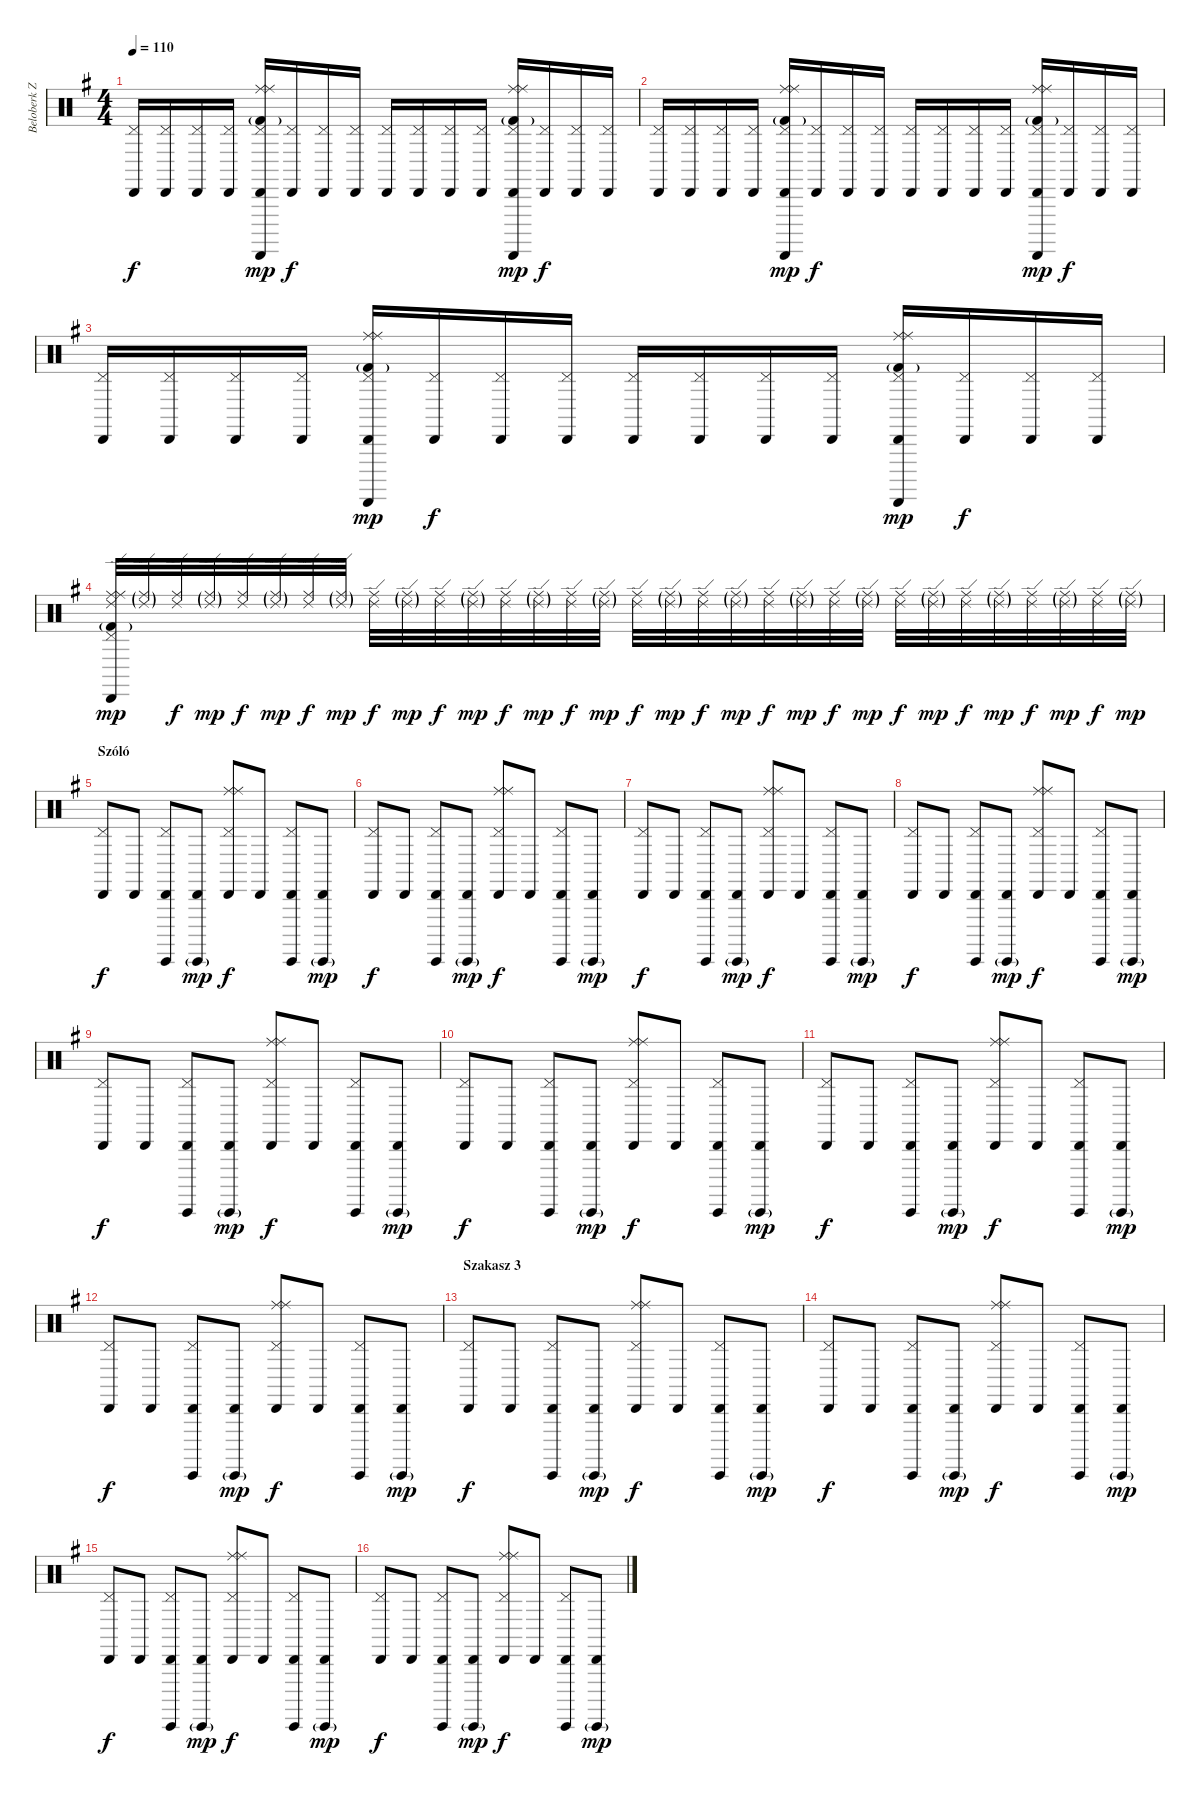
\track ("Beloberk Zsolt" "Beloberk Z") {instrument percussion}
\staff {score}
\articulation defaults
\ts (4 4)
\tempo 110
\clef neutral
\ks eminor
("Pedal Hi-Hat (hit)" "Cabasa (hit)").16{dy f} ("Pedal Hi-Hat (hit)" "Cabasa (hit)").16 ("Pedal Hi-Hat (hit)" "Cabasa (hit)").16 ("Pedal Hi-Hat (hit)" "Cabasa (hit)").16 ("Pedal Hi-Hat (hit)" "Cabasa (hit)" "Ride (middle)" "Ride (middle)" "Kick (hit) 2"{g} "Guiro (scrap-return)").16{dy mp} ("Pedal Hi-Hat (hit)" "Cabasa (hit)").16{dy f} ("Pedal Hi-Hat (hit)" "Cabasa (hit)").16 ("Pedal Hi-Hat (hit)" "Cabasa (hit)").16 ("Pedal Hi-Hat (hit)" "Cabasa (hit)").16 ("Pedal Hi-Hat (hit)" "Cabasa (hit)").16 ("Pedal Hi-Hat (hit)" "Cabasa (hit)").16 ("Pedal Hi-Hat (hit)" "Cabasa (hit)").16 ("Pedal Hi-Hat (hit)" "Cabasa (hit)" "Ride (middle)" "Ride (middle)" "Kick (hit) 2"{g} "Guiro (scrap-return)").16{dy mp} ("Pedal Hi-Hat (hit)" "Cabasa (hit)").16{dy f} ("Pedal Hi-Hat (hit)" "Cabasa (hit)").16 ("Pedal Hi-Hat (hit)" "Cabasa (hit)").16 |
("Pedal Hi-Hat (hit)" "Cabasa (hit)").16 ("Pedal Hi-Hat (hit)" "Cabasa (hit)").16 ("Pedal Hi-Hat (hit)" "Cabasa (hit)").16 ("Pedal Hi-Hat (hit)" "Cabasa (hit)").16 ("Pedal Hi-Hat (hit)" "Cabasa (hit)" "Ride (middle)" "Ride (middle)" "Kick (hit) 2"{g} "Guiro (scrap-return)").16{dy mp} ("Pedal Hi-Hat (hit)" "Cabasa (hit)").16{dy f} ("Pedal Hi-Hat (hit)" "Cabasa (hit)").16 ("Pedal Hi-Hat (hit)" "Cabasa (hit)").16 ("Pedal Hi-Hat (hit)" "Cabasa (hit)").16 ("Pedal Hi-Hat (hit)" "Cabasa (hit)").16 ("Pedal Hi-Hat (hit)" "Cabasa (hit)").16 ("Pedal Hi-Hat (hit)" "Cabasa (hit)").16 ("Pedal Hi-Hat (hit)" "Cabasa (hit)" "Ride (middle)" "Ride (middle)" "Kick (hit) 2"{g} "Guiro (scrap-return)").16{dy mp} ("Pedal Hi-Hat (hit)" "Cabasa (hit)").16{dy f} ("Pedal Hi-Hat (hit)" "Cabasa (hit)").16 ("Pedal Hi-Hat (hit)" "Cabasa (hit)").16 |
("Pedal Hi-Hat (hit)" "Cabasa (hit)").16 ("Pedal Hi-Hat (hit)" "Cabasa (hit)").16 ("Pedal Hi-Hat (hit)" "Cabasa (hit)").16 ("Pedal Hi-Hat (hit)" "Cabasa (hit)").16 ("Pedal Hi-Hat (hit)" "Cabasa (hit)" "Ride (middle)" "Ride (middle)" "Kick (hit) 2"{g} "Guiro (scrap-return)").16{dy mp} ("Pedal Hi-Hat (hit)" "Cabasa (hit)").16{dy f} ("Pedal Hi-Hat (hit)" "Cabasa (hit)").16 ("Pedal Hi-Hat (hit)" "Cabasa (hit)").16 ("Pedal Hi-Hat (hit)" "Cabasa (hit)").16 ("Pedal Hi-Hat (hit)" "Cabasa (hit)").16 ("Pedal Hi-Hat (hit)" "Cabasa (hit)").16 ("Pedal Hi-Hat (hit)" "Cabasa (hit)").16 ("Pedal Hi-Hat (hit)" "Cabasa (hit)" "Ride (middle)" "Ride (middle)" "Kick (hit) 2"{g} "Guiro (scrap-return)").16{dy mp} ("Pedal Hi-Hat (hit)" "Cabasa (hit)").16{dy f} ("Pedal Hi-Hat (hit)" "Cabasa (hit)").16 ("Pedal Hi-Hat (hit)" "Cabasa (hit)").16 |
("Pedal Hi-Hat (hit)" "Cabasa (hit)" "Ride (middle)" "Ride (edge) 2" "Kick (hit) 2"{g} "Ride (middle)").32{dy mp} ("Ride (middle)"{g} "Ride (edge) 2"{g}).32 ("Ride (middle)" "Ride (edge) 2").32{dy f} ("Ride (middle)"{g} "Ride (edge) 2"{g}).32{dy mp} ("Ride (middle)" "Ride (edge) 2").32{dy f} ("Ride (middle)"{g} "Ride (edge) 2"{g}).32{dy mp} ("Ride (middle)" "Ride (edge) 2").32{dy f} ("Ride (middle)"{g} "Ride (edge) 2"{g}).32{dy mp} ("Ride (middle)" "Ride (edge) 2").32{dy f} ("Ride (middle)"{g} "Ride (edge) 2"{g}).32{dy mp} ("Ride (middle)" "Ride (edge) 2").32{dy f} ("Ride (middle)"{g} "Ride (edge) 2"{g}).32{dy mp} ("Ride (middle)" "Ride (edge) 2").32{dy f} ("Ride (middle)"{g} "Ride (edge) 2"{g}).32{dy mp} ("Ride (middle)" "Ride (edge) 2").32{dy f} ("Ride (middle)"{g} "Ride (edge) 2"{g}).32{dy mp} ("Ride (middle)" "Ride (edge) 2").32{dy f} ("Ride (middle)"{g} "Ride (edge) 2"{g}).32{dy mp} ("Ride (middle)" "Ride (edge) 2").32{dy f} ("Ride (middle)"{g} "Ride (edge) 2"{g}).32{dy mp} ("Ride (middle)" "Ride (edge) 2").32{dy f} ("Ride (middle)"{g} "Ride (edge) 2"{g}).32{dy mp} ("Ride (middle)" "Ride (edge) 2").32{dy f} ("Ride (middle)"{g} "Ride (edge) 2"{g}).32{dy mp} ("Ride (middle)" "Ride (edge) 2").32{dy f} ("Ride (middle)"{g} "Ride (edge) 2"{g}).32{dy mp} ("Ride (middle)" "Ride (edge) 2").32{dy f} ("Ride (middle)"{g} "Ride (edge) 2"{g}).32{dy mp} ("Ride (middle)" "Ride (edge) 2").32{dy f} ("Ride (middle)"{g} "Ride (edge) 2"{g}).32{dy mp} ("Ride (middle)" "Ride (edge) 2").32{dy f} ("Ride (middle)"{g} "Ride (edge) 2"{g}).32{dy mp} |
\section ("" "Szóló")
("Cabasa (hit)" "Pedal Hi-Hat (hit)").8{dy f} "Cabasa (hit)".8 ("Cabasa (hit)" "Guiro (hit)" "Pedal Hi-Hat (hit)").8 ("Cabasa (hit)" "Guiro (hit)"{g}).8{dy mp} ("Cabasa (hit)" "Pedal Hi-Hat (hit)" "Ride (middle)" "Ride (middle)").8{dy f} "Cabasa (hit)".8 ("Cabasa (hit)" "Guiro (hit)" "Pedal Hi-Hat (hit)").8 ("Cabasa (hit)" "Guiro (hit)"{g}).8{dy mp} |
("Cabasa (hit)" "Pedal Hi-Hat (hit)").8{dy f} "Cabasa (hit)".8 ("Cabasa (hit)" "Guiro (hit)" "Pedal Hi-Hat (hit)").8 ("Cabasa (hit)" "Guiro (hit)"{g}).8{dy mp} ("Cabasa (hit)" "Pedal Hi-Hat (hit)" "Ride (middle)" "Ride (middle)").8{dy f} "Cabasa (hit)".8 ("Cabasa (hit)" "Guiro (hit)" "Pedal Hi-Hat (hit)").8 ("Cabasa (hit)" "Guiro (hit)"{g}).8{dy mp} |
("Cabasa (hit)" "Pedal Hi-Hat (hit)").8{dy f} "Cabasa (hit)".8 ("Cabasa (hit)" "Guiro (hit)" "Pedal Hi-Hat (hit)").8 ("Cabasa (hit)" "Guiro (hit)"{g}).8{dy mp} ("Cabasa (hit)" "Pedal Hi-Hat (hit)" "Ride (middle)" "Ride (middle)").8{dy f} "Cabasa (hit)".8 ("Cabasa (hit)" "Guiro (hit)" "Pedal Hi-Hat (hit)").8 ("Cabasa (hit)" "Guiro (hit)"{g}).8{dy mp} |
("Cabasa (hit)" "Pedal Hi-Hat (hit)").8{dy f} "Cabasa (hit)".8 ("Cabasa (hit)" "Guiro (hit)" "Pedal Hi-Hat (hit)").8 ("Cabasa (hit)" "Guiro (hit)"{g}).8{dy mp} ("Cabasa (hit)" "Pedal Hi-Hat (hit)" "Ride (middle)" "Ride (middle)").8{dy f} "Cabasa (hit)".8 ("Cabasa (hit)" "Guiro (hit)" "Pedal Hi-Hat (hit)").8 ("Cabasa (hit)" "Guiro (hit)"{g}).8{dy mp} |
("Cabasa (hit)" "Pedal Hi-Hat (hit)").8{dy f} "Cabasa (hit)".8 ("Cabasa (hit)" "Guiro (hit)" "Pedal Hi-Hat (hit)").8 ("Cabasa (hit)" "Guiro (hit)"{g}).8{dy mp} ("Cabasa (hit)" "Pedal Hi-Hat (hit)" "Ride (middle)" "Ride (middle)").8{dy f} "Cabasa (hit)".8 ("Cabasa (hit)" "Guiro (hit)" "Pedal Hi-Hat (hit)").8 ("Cabasa (hit)" "Guiro (hit)"{g}).8{dy mp} |
("Cabasa (hit)" "Pedal Hi-Hat (hit)").8{dy f} "Cabasa (hit)".8 ("Cabasa (hit)" "Guiro (hit)" "Pedal Hi-Hat (hit)").8 ("Cabasa (hit)" "Guiro (hit)"{g}).8{dy mp} ("Cabasa (hit)" "Pedal Hi-Hat (hit)" "Ride (middle)" "Ride (middle)").8{dy f} "Cabasa (hit)".8 ("Cabasa (hit)" "Guiro (hit)" "Pedal Hi-Hat (hit)").8 ("Cabasa (hit)" "Guiro (hit)"{g}).8{dy mp} |
("Cabasa (hit)" "Pedal Hi-Hat (hit)").8{dy f} "Cabasa (hit)".8 ("Cabasa (hit)" "Guiro (hit)" "Pedal Hi-Hat (hit)").8 ("Cabasa (hit)" "Guiro (hit)"{g}).8{dy mp} ("Cabasa (hit)" "Pedal Hi-Hat (hit)" "Ride (middle)" "Ride (middle)").8{dy f} "Cabasa (hit)".8 ("Cabasa (hit)" "Guiro (hit)" "Pedal Hi-Hat (hit)").8 ("Cabasa (hit)" "Guiro (hit)"{g}).8{dy mp} |
("Cabasa (hit)" "Pedal Hi-Hat (hit)").8{dy f} "Cabasa (hit)".8 ("Cabasa (hit)" "Guiro (hit)" "Pedal Hi-Hat (hit)").8 ("Cabasa (hit)" "Guiro (hit)"{g}).8{dy mp} ("Cabasa (hit)" "Pedal Hi-Hat (hit)" "Ride (middle)" "Ride (middle)").8{dy f} "Cabasa (hit)".8 ("Cabasa (hit)" "Guiro (hit)" "Pedal Hi-Hat (hit)").8 ("Cabasa (hit)" "Guiro (hit)"{g}).8{dy mp} |
\section ("" "Szakasz 3")
("Cabasa (hit)" "Pedal Hi-Hat (hit)").8{dy f} "Cabasa (hit)".8 ("Cabasa (hit)" "Guiro (hit)" "Pedal Hi-Hat (hit)").8 ("Cabasa (hit)" "Guiro (hit)"{g}).8{dy mp} ("Cabasa (hit)" "Pedal Hi-Hat (hit)" "Ride (middle)" "Ride (middle)").8{dy f} "Cabasa (hit)".8 ("Cabasa (hit)" "Guiro (hit)" "Pedal Hi-Hat (hit)").8 ("Cabasa (hit)" "Guiro (hit)"{g}).8{dy mp} |
("Cabasa (hit)" "Pedal Hi-Hat (hit)").8{dy f} "Cabasa (hit)".8 ("Cabasa (hit)" "Guiro (hit)" "Pedal Hi-Hat (hit)").8 ("Cabasa (hit)" "Guiro (hit)"{g}).8{dy mp} ("Cabasa (hit)" "Pedal Hi-Hat (hit)" "Ride (middle)" "Ride (middle)").8{dy f} "Cabasa (hit)".8 ("Cabasa (hit)" "Guiro (hit)" "Pedal Hi-Hat (hit)").8 ("Cabasa (hit)" "Guiro (hit)"{g}).8{dy mp} |
("Cabasa (hit)" "Pedal Hi-Hat (hit)").8{dy f} "Cabasa (hit)".8 ("Cabasa (hit)" "Guiro (hit)" "Pedal Hi-Hat (hit)").8 ("Cabasa (hit)" "Guiro (hit)"{g}).8{dy mp} ("Cabasa (hit)" "Pedal Hi-Hat (hit)" "Ride (middle)" "Ride (middle)").8{dy f} "Cabasa (hit)".8 ("Cabasa (hit)" "Guiro (hit)" "Pedal Hi-Hat (hit)").8 ("Cabasa (hit)" "Guiro (hit)"{g}).8{dy mp} |
("Cabasa (hit)" "Pedal Hi-Hat (hit)").8{dy f} "Cabasa (hit)".8 ("Cabasa (hit)" "Guiro (hit)" "Pedal Hi-Hat (hit)").8 ("Cabasa (hit)" "Guiro (hit)"{g}).8{dy mp} ("Cabasa (hit)" "Pedal Hi-Hat (hit)" "Ride (middle)" "Ride (middle)").8{dy f} "Cabasa (hit)".8 ("Cabasa (hit)" "Guiro (hit)" "Pedal Hi-Hat (hit)").8 ("Cabasa (hit)" "Guiro (hit)"{g}).8{dy mp}
